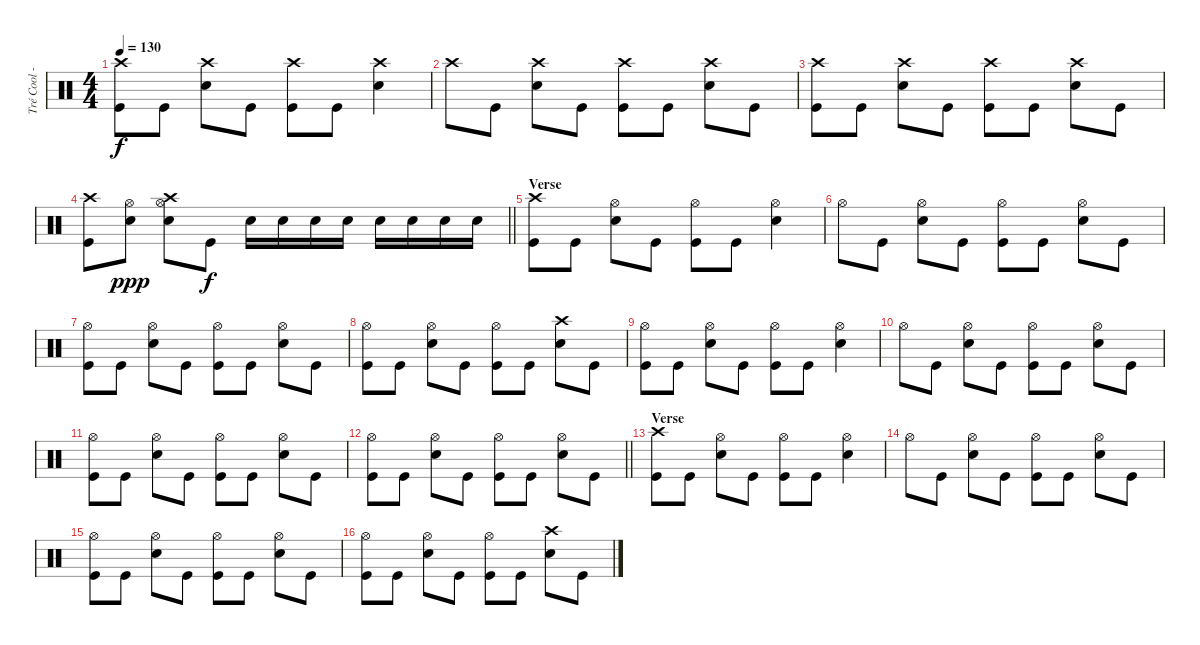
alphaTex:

\track ("Tré Cool - Drums" "Tré Cool -") {instrument percussion}
\staff {score}
\articulation defaults
\ts (4 4)
\tempo 130
\clef neutral
\ks c
("Kick (hit)" "Crash high (hit)").8{dy f} "Kick (hit)".8 ("Snare (hit) 2" "Crash high (hit)").8 "Kick (hit)".8 ("Kick (hit)" "Crash high (hit)").8 "Kick (hit)".8 ("Snare (hit) 2" "Crash high (hit)").4 |
"Crash high (hit)".8 "Kick (hit)".8 ("Snare (hit) 2" "Crash high (hit)").8 "Kick (hit)".8 ("Kick (hit)" "Crash high (hit)").8 "Kick (hit)".8 ("Snare (hit) 2" "Crash high (hit)").8 "Kick (hit)".8 |
("Kick (hit)" "Crash high (hit)").8 "Kick (hit)".8 ("Snare (hit) 2" "Crash high (hit)").8 "Kick (hit)".8 ("Kick (hit)" "Crash high (hit)").8 "Kick (hit)".8 ("Snare (hit) 2" "Crash high (hit)").8 "Kick (hit)".8 |
\barLineRight lightlight
("Kick (hit)" "Crash high (hit)").8 ("Snare (hit) 2" "Hi-Hat (open)").8{dy ppp} ("Snare (hit) 2" "Crash high (hit)" "Hi-Hat (open)").8 "Kick (hit)".8{dy f} "Snare (hit) 2".16 "Snare (hit) 2".16 "Snare (hit) 2".16 "Snare (hit) 2".16 "Snare (hit) 2".16 "Snare (hit) 2".16 "Snare (hit) 2".16 "Snare (hit) 2".16 |
\section ("" "Verse")
("Kick (hit)" "Crash high (hit)").8 "Kick (hit)".8 ("Snare (hit) 2" "Hi-Hat (open)").8 "Kick (hit)".8 ("Kick (hit)" "Hi-Hat (open)").8 "Kick (hit)".8 ("Snare (hit) 2" "Hi-Hat (open)").4 |
"Hi-Hat (open)".8 "Kick (hit)".8 ("Snare (hit) 2" "Hi-Hat (open)").8 "Kick (hit)".8 ("Kick (hit)" "Hi-Hat (open)").8 "Kick (hit)".8 ("Snare (hit) 2" "Hi-Hat (open)").8 "Kick (hit)".8 |
("Kick (hit)" "Hi-Hat (open)").8 "Kick (hit)".8 ("Snare (hit) 2" "Hi-Hat (open)").8 "Kick (hit)".8 ("Kick (hit)" "Hi-Hat (open)").8 "Kick (hit)".8 ("Snare (hit) 2" "Hi-Hat (open)").8 "Kick (hit)".8 |
("Kick (hit)" "Hi-Hat (open)").8 "Kick (hit)".8 ("Snare (hit) 2" "Hi-Hat (open)").8 "Kick (hit)".8 ("Kick (hit)" "Hi-Hat (open)").8 "Kick (hit)".8 ("Snare (hit) 2" "Crash high (hit)").8 "Kick (hit)".8 |
("Kick (hit)" "Hi-Hat (open)").8 "Kick (hit)".8 ("Snare (hit) 2" "Hi-Hat (open)").8 "Kick (hit)".8 ("Kick (hit)" "Hi-Hat (open)").8 "Kick (hit)".8 ("Snare (hit) 2" "Hi-Hat (open)").4 |
"Hi-Hat (open)".8 "Kick (hit)".8 ("Snare (hit) 2" "Hi-Hat (open)").8 "Kick (hit)".8 ("Kick (hit)" "Hi-Hat (open)").8 "Kick (hit)".8 ("Snare (hit) 2" "Hi-Hat (open)").8 "Kick (hit)".8 |
("Kick (hit)" "Hi-Hat (open)").8 "Kick (hit)".8 ("Snare (hit) 2" "Hi-Hat (open)").8 "Kick (hit)".8 ("Kick (hit)" "Hi-Hat (open)").8 "Kick (hit)".8 ("Snare (hit) 2" "Hi-Hat (open)").8 "Kick (hit)".8 |
\barLineRight lightlight
("Kick (hit)" "Hi-Hat (open)").8 "Kick (hit)".8 ("Snare (hit) 2" "Hi-Hat (open)").8 "Kick (hit)".8 ("Kick (hit)" "Hi-Hat (open)").8 "Kick (hit)".8 ("Snare (hit) 2" "Hi-Hat (open)").8 "Kick (hit)".8 |
\section ("" "Verse")
("Kick (hit)" "Crash high (hit)").8 "Kick (hit)".8 ("Snare (hit) 2" "Hi-Hat (open)").8 "Kick (hit)".8 ("Kick (hit)" "Hi-Hat (open)").8 "Kick (hit)".8 ("Snare (hit) 2" "Hi-Hat (open)").4 |
"Hi-Hat (open)".8 "Kick (hit)".8 ("Snare (hit) 2" "Hi-Hat (open)").8 "Kick (hit)".8 ("Kick (hit)" "Hi-Hat (open)").8 "Kick (hit)".8 ("Snare (hit) 2" "Hi-Hat (open)").8 "Kick (hit)".8 |
("Kick (hit)" "Hi-Hat (open)").8 "Kick (hit)".8 ("Snare (hit) 2" "Hi-Hat (open)").8 "Kick (hit)".8 ("Kick (hit)" "Hi-Hat (open)").8 "Kick (hit)".8 ("Snare (hit) 2" "Hi-Hat (open)").8 "Kick (hit)".8 |
("Kick (hit)" "Hi-Hat (open)").8 "Kick (hit)".8 ("Snare (hit) 2" "Hi-Hat (open)").8 "Kick (hit)".8 ("Kick (hit)" "Hi-Hat (open)").8 "Kick (hit)".8 ("Snare (hit) 2" "Crash high (hit)").8 "Kick (hit)".8
